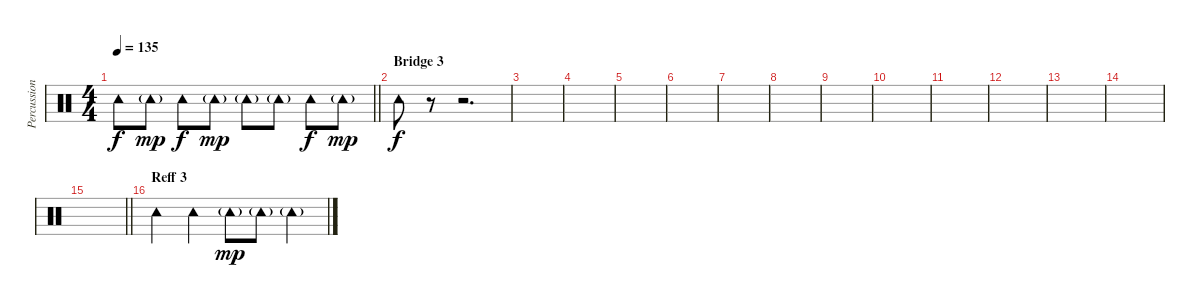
\track ("Percussion 2" "Percussion") {instrument percussion}
\staff {score}
\articulation defaults
\ts (4 4)
\tempo 135
\clef neutral
\barLineRight lightlight
\ks c "Tambourine (hit)".8{dy f} "Tambourine (hit)"{g}.8{dy mp} "Tambourine (hit)".8{dy f} "Tambourine (hit)"{g}.8{dy mp} "Tambourine (hit)"{g}.8 "Tambourine (hit)"{g}.8 "Tambourine (hit)".8{dy f} "Tambourine (hit)"{g}.8{dy mp}
|
\section ("" "Bridge 3")
"Tambourine (hit)".8{dy f} r.8 r.2{d} |
|
|
|
|
|
|
|
|
|
|
|
|
\barLineRight lightlight
|
\section ("" "Reff 3")
"Tambourine (hit)".4 "Tambourine (hit)".4 "Tambourine (hit)"{g}.8{dy mp} "Tambourine (hit)"{g}.8 "Tambourine (hit)"{g}.4
